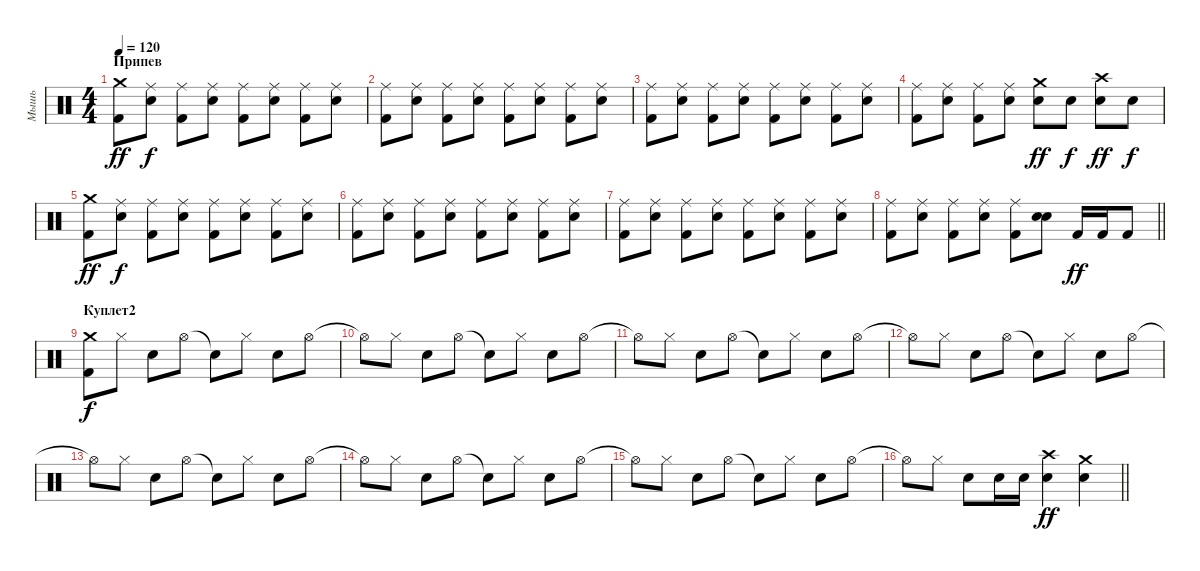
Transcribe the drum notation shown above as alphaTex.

\track ("Мышь" "Мышь") {instrument percussion}
\staff {score}
\articulation defaults
\ts (4 4)
\section ("" "Припев")
\tempo 120
\clef neutral
\ks c
("Kick (hit) 2" "Crash medium (hit)").8{dy ff} ("Snare (hit) 2" "Ride (middle)").8{dy f} ("Kick (hit) 2" "Ride (middle)").8 ("Snare (hit) 2" "Ride (middle)").8 ("Kick (hit) 2" "Ride (middle)").8 ("Snare (hit) 2" "Ride (middle)").8 ("Kick (hit) 2" "Ride (middle)").8 ("Snare (hit) 2" "Ride (middle)").8 |
("Kick (hit) 2" "Ride (middle)").8 ("Snare (hit) 2" "Ride (middle)").8 ("Kick (hit) 2" "Ride (middle)").8 ("Snare (hit) 2" "Ride (middle)").8 ("Kick (hit) 2" "Ride (middle)").8 ("Snare (hit) 2" "Ride (middle)").8 ("Kick (hit) 2" "Ride (middle)").8 ("Snare (hit) 2" "Ride (middle)").8 |
("Kick (hit) 2" "Ride (middle)").8 ("Snare (hit) 2" "Ride (middle)").8 ("Kick (hit) 2" "Ride (middle)").8 ("Snare (hit) 2" "Ride (middle)").8 ("Kick (hit) 2" "Ride (middle)").8 ("Snare (hit) 2" "Ride (middle)").8 ("Kick (hit) 2" "Ride (middle)").8 ("Snare (hit) 2" "Ride (middle)").8 |
("Kick (hit) 2" "Ride (middle)").8 ("Snare (hit) 2" "Ride (middle)").8 ("Kick (hit) 2" "Ride (middle)").8 ("Snare (hit) 2" "Ride (middle)").8 ("Snare (hit) 2" "Crash medium (hit)").8{dy ff} "Snare (hit) 2".8{dy f} ("Snare (hit) 2" "Crash high (hit)").8{dy ff} "Snare (hit) 2".8{dy f} |
("Kick (hit) 2" "Crash medium (hit)").8{dy ff} ("Snare (hit) 2" "Ride (middle)").8{dy f} ("Kick (hit) 2" "Ride (middle)").8 ("Snare (hit) 2" "Ride (middle)").8 ("Kick (hit) 2" "Ride (middle)").8 ("Snare (hit) 2" "Ride (middle)").8 ("Kick (hit) 2" "Ride (middle)").8 ("Snare (hit) 2" "Ride (middle)").8 |
("Kick (hit) 2" "Ride (middle)").8 ("Snare (hit) 2" "Ride (middle)").8 ("Kick (hit) 2" "Ride (middle)").8 ("Snare (hit) 2" "Ride (middle)").8 ("Kick (hit) 2" "Ride (middle)").8 ("Snare (hit) 2" "Ride (middle)").8 ("Kick (hit) 2" "Ride (middle)").8 ("Snare (hit) 2" "Ride (middle)").8 |
("Kick (hit) 2" "Ride (middle)").8 ("Snare (hit) 2" "Ride (middle)").8 ("Kick (hit) 2" "Ride (middle)").8 ("Snare (hit) 2" "Ride (middle)").8 ("Kick (hit) 2" "Ride (middle)").8 ("Snare (hit) 2" "Ride (middle)").8 ("Kick (hit) 2" "Ride (middle)").8 ("Snare (hit) 2" "Ride (middle)").8 |
\barLineRight lightlight
("Kick (hit) 2" "Ride (middle)").8 ("Snare (hit) 2" "Ride (middle)").8 ("Kick (hit) 2" "Ride (middle)").8 ("Snare (hit) 2" "Ride (middle)").8 ("Kick (hit) 2" "Ride (middle)").8 ("Snare (hit) 2" "Snare (hit) 2").8{bd 120} "Kick (hit) 2".16{dy ff} "Kick (hit) 2".16 "Kick (hit) 2".8 |
\section ("" "Куплет2")
("Crash medium (hit)" "Kick (hit) 2").8{dy f} "Hi-Hat (closed)".8 "Snare (hit) 2".8 "Hi-Hat (open)".8 "Snare (hit)"{t}.8 "Hi-Hat (closed)".8 "Snare (hit) 2".8 "Hi-Hat (open)".8 |
"Hi-Hat (open)"{t}.8 "Hi-Hat (closed)".8 "Snare (hit) 2".8 "Hi-Hat (open)".8 "Snare (hit)"{t}.8 "Hi-Hat (closed)".8 "Snare (hit) 2".8 "Hi-Hat (open)".8 |
"Hi-Hat (open)"{t}.8 "Hi-Hat (closed)".8 "Snare (hit) 2".8 "Hi-Hat (open)".8 "Snare (hit)"{t}.8 "Hi-Hat (closed)".8 "Snare (hit) 2".8 "Hi-Hat (open)".8 |
"Hi-Hat (open)"{t}.8 "Hi-Hat (closed)".8 "Snare (hit) 2".8 "Hi-Hat (open)".8 "Snare (hit)"{t}.8 "Hi-Hat (closed)".8 "Snare (hit) 2".8 "Hi-Hat (open)".8 |
"Hi-Hat (open)"{t}.8 "Hi-Hat (closed)".8 "Snare (hit) 2".8 "Hi-Hat (open)".8 "Snare (hit)"{t}.8 "Hi-Hat (closed)".8 "Snare (hit) 2".8 "Hi-Hat (open)".8 |
"Hi-Hat (open)"{t}.8 "Hi-Hat (closed)".8 "Snare (hit) 2".8 "Hi-Hat (open)".8 "Snare (hit)"{t}.8 "Hi-Hat (closed)".8 "Snare (hit) 2".8 "Hi-Hat (open)".8 |
"Hi-Hat (open)"{t}.8 "Hi-Hat (closed)".8 "Snare (hit) 2".8 "Hi-Hat (open)".8 "Snare (hit)"{t}.8 "Hi-Hat (closed)".8 "Snare (hit) 2".8 "Hi-Hat (open)".8 |
\barLineRight lightlight "Hi-Hat (open)"{t}.8 "Hi-Hat (closed)".8 "Snare (hit) 2".8 "Snare (hit) 2".16 "Snare (hit) 2".16
("Snare (hit) 2" "Crash high (hit)").4{dy ff} ("Snare (hit) 2" "Crash medium (hit)").4
